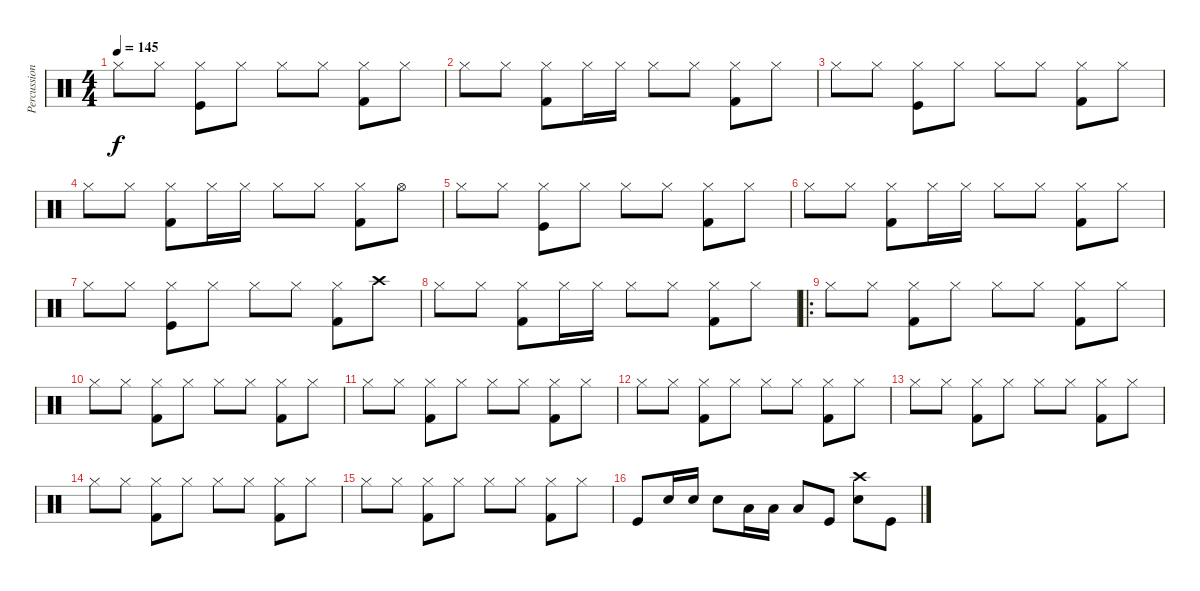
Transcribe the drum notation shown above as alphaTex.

\track ("Percussion" "Percussion") {instrument percussion}
\staff {score}
\articulation defaults
\ts (4 4)
\tempo 145
\clef neutral
\ks c "Hi-Hat (closed)".8{dy f} "Hi-Hat (closed)".8
("Hi-Hat (closed)" "Kick (hit)").8 "Hi-Hat (closed)".8 "Hi-Hat (closed)".8 "Hi-Hat (closed)".8 ("Kick (hit) 2" "Hi-Hat (closed)").8 "Hi-Hat (closed)".8 |
"Hi-Hat (closed)".8 "Hi-Hat (closed)".8 ("Kick (hit) 2" "Hi-Hat (closed)").8 "Hi-Hat (closed)".16 "Hi-Hat (closed)".16 "Hi-Hat (closed)".8 "Hi-Hat (closed)".8 ("Hi-Hat (closed)" "Kick (hit) 2").8 "Hi-Hat (closed)".8 |
"Hi-Hat (closed)".8 "Hi-Hat (closed)".8 ("Hi-Hat (closed)" "Kick (hit)").8 "Hi-Hat (closed)".8 "Hi-Hat (closed)".8 "Hi-Hat (closed)".8 ("Kick (hit) 2" "Hi-Hat (closed)").8 "Hi-Hat (closed)".8 |
"Hi-Hat (closed)".8 "Hi-Hat (closed)".8 ("Kick (hit) 2" "Hi-Hat (closed)").8 "Hi-Hat (closed)".16 "Hi-Hat (closed)".16 "Hi-Hat (closed)".8 "Hi-Hat (closed)".8 ("Hi-Hat (closed)" "Kick (hit) 2").8 "Hi-Hat (open)".8 |
"Hi-Hat (closed)".8 "Hi-Hat (closed)".8 ("Hi-Hat (closed)" "Kick (hit)").8 "Hi-Hat (closed)".8 "Hi-Hat (closed)".8 "Hi-Hat (closed)".8 ("Kick (hit) 2" "Hi-Hat (closed)").8 "Hi-Hat (closed)".8 |
"Hi-Hat (closed)".8 "Hi-Hat (closed)".8 ("Kick (hit) 2" "Hi-Hat (closed)").8 "Hi-Hat (closed)".16 "Hi-Hat (closed)".16 "Hi-Hat (closed)".8 "Hi-Hat (closed)".8 ("Hi-Hat (closed)" "Kick (hit) 2").8 "Hi-Hat (closed)".8 |
"Hi-Hat (closed)".8 "Hi-Hat (closed)".8 ("Hi-Hat (closed)" "Kick (hit)").8 "Hi-Hat (closed)".8 "Hi-Hat (closed)".8 "Hi-Hat (closed)".8 ("Kick (hit) 2" "Hi-Hat (closed)").8 "Crash high (hit)".8 |
"Hi-Hat (closed)".8 "Hi-Hat (closed)".8 ("Kick (hit) 2" "Hi-Hat (closed)").8 "Hi-Hat (closed)".16 "Hi-Hat (closed)".16 "Hi-Hat (closed)".8 "Hi-Hat (closed)".8 ("Hi-Hat (closed)" "Kick (hit) 2").8 "Hi-Hat (closed)".8 |
\ro "Hi-Hat (closed)".8 "Hi-Hat (closed)".8
("Kick (hit) 2" "Hi-Hat (closed)").8 "Hi-Hat (closed)".8 "Hi-Hat (closed)".8 "Hi-Hat (closed)".8 ("Hi-Hat (closed)" "Kick (hit) 2").8 "Hi-Hat (closed)".8 |
"Hi-Hat (closed)".8 "Hi-Hat (closed)".8 ("Kick (hit) 2" "Hi-Hat (closed)").8 "Hi-Hat (closed)".8 "Hi-Hat (closed)".8 "Hi-Hat (closed)".8 ("Hi-Hat (closed)" "Kick (hit) 2").8 "Hi-Hat (closed)".8 |
"Hi-Hat (closed)".8 "Hi-Hat (closed)".8 ("Kick (hit) 2" "Hi-Hat (closed)").8 "Hi-Hat (closed)".8 "Hi-Hat (closed)".8 "Hi-Hat (closed)".8 ("Hi-Hat (closed)" "Kick (hit) 2").8 "Hi-Hat (closed)".8 |
"Hi-Hat (closed)".8 "Hi-Hat (closed)".8 ("Kick (hit) 2" "Hi-Hat (closed)").8 "Hi-Hat (closed)".8 "Hi-Hat (closed)".8 "Hi-Hat (closed)".8 ("Hi-Hat (closed)" "Kick (hit) 2").8 "Hi-Hat (closed)".8 |
"Hi-Hat (closed)".8 "Hi-Hat (closed)".8 ("Kick (hit) 2" "Hi-Hat (closed)").8 "Hi-Hat (closed)".8 "Hi-Hat (closed)".8 "Hi-Hat (closed)".8 ("Hi-Hat (closed)" "Kick (hit) 2").8 "Hi-Hat (closed)".8 |
"Hi-Hat (closed)".8 "Hi-Hat (closed)".8 ("Kick (hit) 2" "Hi-Hat (closed)").8 "Hi-Hat (closed)".8 "Hi-Hat (closed)".8 "Hi-Hat (closed)".8 ("Hi-Hat (closed)" "Kick (hit) 2").8 "Hi-Hat (closed)".8 |
"Hi-Hat (closed)".8 "Hi-Hat (closed)".8 ("Kick (hit) 2" "Hi-Hat (closed)").8 "Hi-Hat (closed)".8 "Hi-Hat (closed)".8 "Hi-Hat (closed)".8 ("Hi-Hat (closed)" "Kick (hit) 2").8 "Hi-Hat (closed)".8 |
"Kick (hit)".8 "Snare (hit) 2".16 "Snare (hit) 2".16 "Snare (hit) 2".8 "Low Tom (hit)".16 "Low Tom (hit)".16 "Low Tom (hit)".8 "Kick (hit)".8 ("Snare (hit) 2" "Crash high (hit)").8 "Kick (hit)".8
